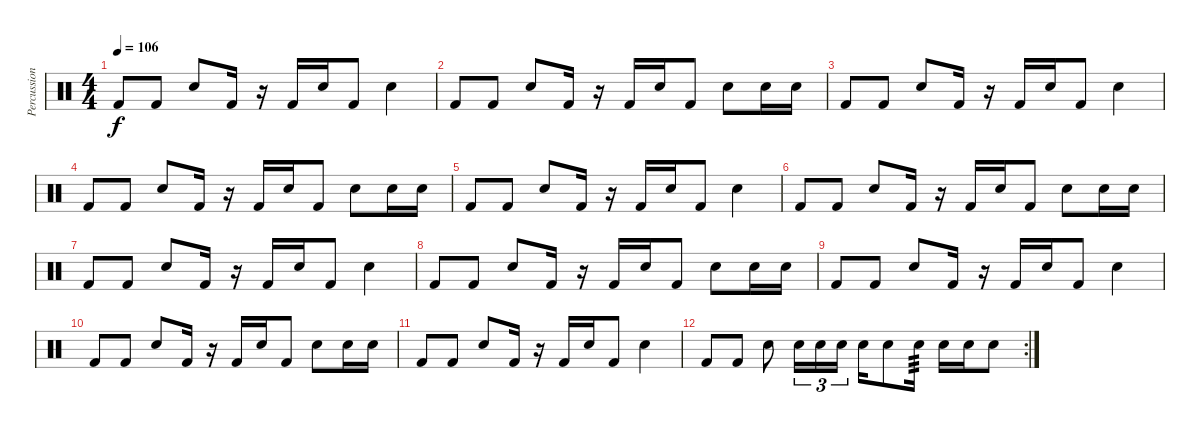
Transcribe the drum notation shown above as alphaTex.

\track ("Percussion" "Percussion") {instrument percussion}
\staff {score}
\articulation defaults
\ts (4 4)
\tempo 106
\clef neutral
\ks c "Kick (hit) 2".8{dy f} "Kick (hit) 2".8 "Snare (hit) 2".8 "Kick (hit) 2".16
r.16 "Kick (hit) 2".16 "Snare (hit) 2".16 "Kick (hit) 2".8 "Snare (hit) 2".4 |
"Kick (hit) 2".8 "Kick (hit) 2".8 "Snare (hit) 2".8 "Kick (hit) 2".16 r.16 "Kick (hit) 2".16 "Snare (hit) 2".16 "Kick (hit) 2".8 "Snare (hit) 2".8 "Snare (hit) 2".16 "Snare (hit) 2".16 |
"Kick (hit) 2".8 "Kick (hit) 2".8 "Snare (hit) 2".8 "Kick (hit) 2".16 r.16 "Kick (hit) 2".16 "Snare (hit) 2".16 "Kick (hit) 2".8 "Snare (hit) 2".4 |
"Kick (hit) 2".8 "Kick (hit) 2".8 "Snare (hit) 2".8 "Kick (hit) 2".16 r.16 "Kick (hit) 2".16 "Snare (hit) 2".16 "Kick (hit) 2".8 "Snare (hit) 2".8 "Snare (hit) 2".16 "Snare (hit) 2".16 |
"Kick (hit) 2".8 "Kick (hit) 2".8 "Snare (hit) 2".8 "Kick (hit) 2".16 r.16 "Kick (hit) 2".16 "Snare (hit) 2".16 "Kick (hit) 2".8 "Snare (hit) 2".4 |
"Kick (hit) 2".8 "Kick (hit) 2".8 "Snare (hit) 2".8 "Kick (hit) 2".16 r.16 "Kick (hit) 2".16 "Snare (hit) 2".16 "Kick (hit) 2".8 "Snare (hit) 2".8 "Snare (hit) 2".16 "Snare (hit) 2".16 |
"Kick (hit) 2".8 "Kick (hit) 2".8 "Snare (hit) 2".8 "Kick (hit) 2".16 r.16 "Kick (hit) 2".16 "Snare (hit) 2".16 "Kick (hit) 2".8 "Snare (hit) 2".4 |
"Kick (hit) 2".8 "Kick (hit) 2".8 "Snare (hit) 2".8 "Kick (hit) 2".16 r.16 "Kick (hit) 2".16 "Snare (hit) 2".16 "Kick (hit) 2".8 "Snare (hit) 2".8 "Snare (hit) 2".16 "Snare (hit) 2".16 |
"Kick (hit) 2".8 "Kick (hit) 2".8 "Snare (hit) 2".8 "Kick (hit) 2".16 r.16 "Kick (hit) 2".16 "Snare (hit) 2".16 "Kick (hit) 2".8 "Snare (hit) 2".4 |
"Kick (hit) 2".8 "Kick (hit) 2".8 "Snare (hit) 2".8 "Kick (hit) 2".16 r.16 "Kick (hit) 2".16 "Snare (hit) 2".16 "Kick (hit) 2".8 "Snare (hit) 2".8 "Snare (hit) 2".16 "Snare (hit) 2".16 |
"Kick (hit) 2".8 "Kick (hit) 2".8 "Snare (hit) 2".8 "Kick (hit) 2".16 r.16 "Kick (hit) 2".16 "Snare (hit) 2".16 "Kick (hit) 2".8 "Snare (hit) 2".4 |
\rc 2 "Kick (hit) 2".8 "Kick (hit) 2".8 "Snare (hit) 2".8 "Snare (hit) 2".16{tu (3 2)} "Snare (hit) 2".16{tu (3 2)} "Snare (hit) 2".16{tu (3 2)} "Snare (hit) 2".16 "Snare (hit) 2".8 "Snare (hit) 2".16{tp 3} "Snare (hit) 2".16 "Snare (hit) 2".16 "Snare (hit) 2".8
